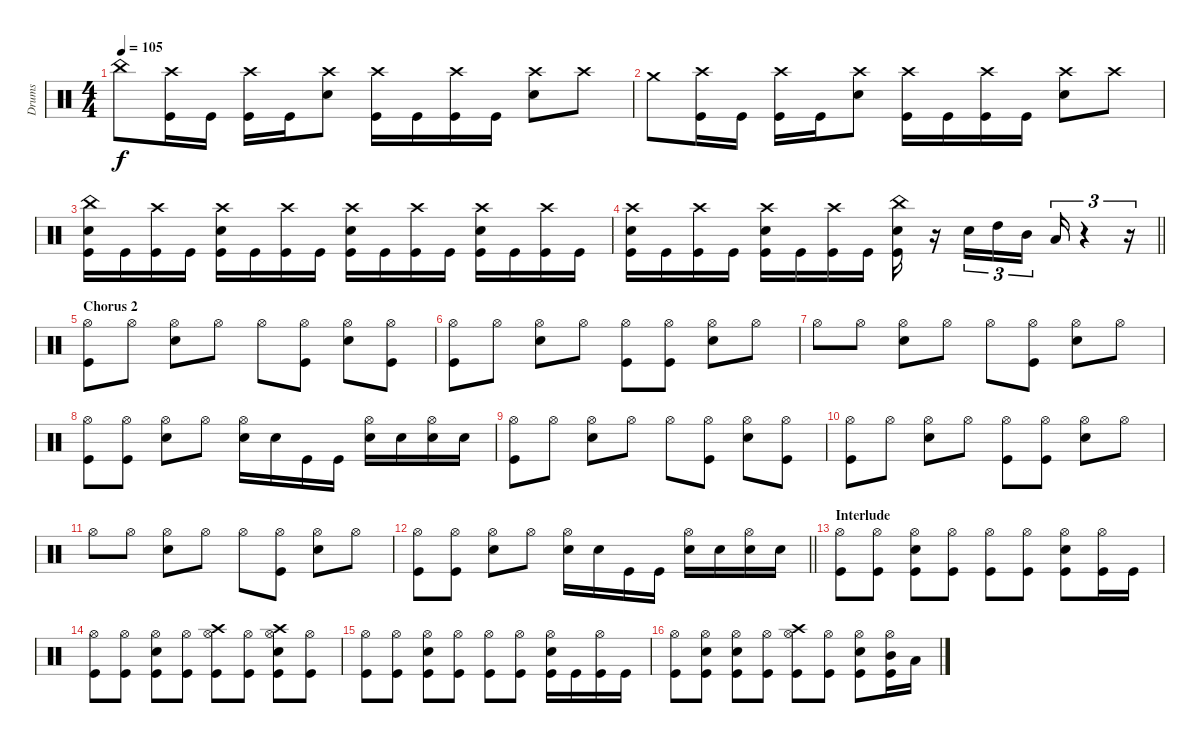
\track ("Drums" "Drums") {instrument percussion}
\staff {score}
\articulation defaults
\ts (4 4)
\tempo 105
\clef neutral
\ks c "China (hit)".8{dy f}
("Crash high (hit)" "Kick (hit)").16 "Kick (hit)".16 ("Crash high (hit)" "Kick (hit)").16 "Kick (hit)".16 ("Crash high (hit)" "Snare (hit) 2").8 ("Crash high (hit)" "Kick (hit)").16 "Kick (hit)".16 ("Crash high (hit)" "Kick (hit)").16 "Kick (hit)".16 ("Crash high (hit)" "Snare (hit) 2").8 "Crash high (hit)".8 |
"Crash medium (hit)".8 ("Crash high (hit)" "Kick (hit)").16 "Kick (hit)".16 ("Crash high (hit)" "Kick (hit)").16 "Kick (hit)".16 ("Crash high (hit)" "Snare (hit) 2").8 ("Crash high (hit)" "Kick (hit)").16 "Kick (hit)".16 ("Crash high (hit)" "Kick (hit)").16 "Kick (hit)".16 ("Crash high (hit)" "Snare (hit) 2").8 "Crash high (hit)".8 |
("China (hit)" "Snare (hit) 2" "Kick (hit)").16 "Kick (hit)".16 ("Crash high (hit)" "Kick (hit)").16 "Kick (hit)".16 ("Crash high (hit)" "Kick (hit)" "Snare (hit) 2").16 "Kick (hit)".16 ("Crash high (hit)" "Kick (hit)").16 "Kick (hit)".16 ("Crash high (hit)" "Kick (hit)" "Snare (hit) 2").16 "Kick (hit)".16 ("Crash high (hit)" "Kick (hit)").16 "Kick (hit)".16 ("Crash high (hit)" "Kick (hit)" "Snare (hit) 2").16 "Kick (hit)".16 ("Crash high (hit)" "Kick (hit)").16 "Kick (hit)".16 |
\barLineRight lightlight
("Crash high (hit)" "Snare (hit) 2" "Kick (hit)").16 "Kick (hit)".16 ("Crash high (hit)" "Kick (hit)").16 "Kick (hit)".16 ("Crash high (hit)" "Kick (hit)" "Snare (hit) 2").16 "Kick (hit)".16 ("Crash high (hit)" "Kick (hit)").16 "Kick (hit)".16 ("China (hit)" "Kick (hit)" "Snare (hit) 2").16 r.16 "Snare (hit) 2".16{tu (3 2)} "High Tom (hit)".16{tu (3 2)} "Mid Tom (hit)".16{tu (3 2)} "Low Tom (hit)".16{tu (3 2)} r.4{tu (3 2)} r.16{tu (3 2)} |
\section ("" "Chorus 2")
("Kick (hit)" "Hi-Hat (open)").8 "Hi-Hat (open)".8 ("Snare (hit) 2" "Hi-Hat (open)").8 "Hi-Hat (open)".8 "Hi-Hat (open)".8 ("Kick (hit)" "Hi-Hat (open)").8 ("Snare (hit) 2" "Hi-Hat (open)").8 ("Kick (hit)" "Hi-Hat (open)").8 |
("Kick (hit)" "Hi-Hat (open)").8 "Hi-Hat (open)".8 ("Snare (hit) 2" "Hi-Hat (open)").8 "Hi-Hat (open)".8 ("Kick (hit)" "Hi-Hat (open)").8 ("Kick (hit)" "Hi-Hat (open)").8 ("Snare (hit) 2" "Hi-Hat (open)").8 "Hi-Hat (open)".8 |
"Hi-Hat (open)".8 "Hi-Hat (open)".8 ("Snare (hit) 2" "Hi-Hat (open)").8 "Hi-Hat (open)".8 "Hi-Hat (open)".8 ("Kick (hit)" "Hi-Hat (open)").8 ("Snare (hit) 2" "Hi-Hat (open)").8 "Hi-Hat (open)".8 |
("Kick (hit)" "Hi-Hat (open)").8 ("Kick (hit)" "Hi-Hat (open)").8 ("Snare (hit) 2" "Hi-Hat (open)").8 "Hi-Hat (open)".8 ("Snare (hit) 2" "Hi-Hat (open)").16 "Snare (hit) 2".16 "Kick (hit)".16 "Kick (hit)".16 ("Snare (hit) 2" "Hi-Hat (open)").16 "Snare (hit) 2".16 ("Snare (hit) 2" "Hi-Hat (open)").16 "Snare (hit) 2".16 |
("Kick (hit)" "Hi-Hat (open)").8 "Hi-Hat (open)".8 ("Snare (hit) 2" "Hi-Hat (open)").8 "Hi-Hat (open)".8 "Hi-Hat (open)".8 ("Kick (hit)" "Hi-Hat (open)").8 ("Snare (hit) 2" "Hi-Hat (open)").8 ("Kick (hit)" "Hi-Hat (open)").8 |
("Kick (hit)" "Hi-Hat (open)").8 "Hi-Hat (open)".8 ("Snare (hit) 2" "Hi-Hat (open)").8 "Hi-Hat (open)".8 ("Kick (hit)" "Hi-Hat (open)").8 ("Kick (hit)" "Hi-Hat (open)").8 ("Snare (hit) 2" "Hi-Hat (open)").8 "Hi-Hat (open)".8 |
"Hi-Hat (open)".8 "Hi-Hat (open)".8 ("Snare (hit) 2" "Hi-Hat (open)").8 "Hi-Hat (open)".8 "Hi-Hat (open)".8 ("Kick (hit)" "Hi-Hat (open)").8 ("Snare (hit) 2" "Hi-Hat (open)").8 "Hi-Hat (open)".8 |
\barLineRight lightlight
("Kick (hit)" "Hi-Hat (open)").8 ("Kick (hit)" "Hi-Hat (open)").8 ("Snare (hit) 2" "Hi-Hat (open)").8 "Hi-Hat (open)".8 ("Snare (hit) 2" "Hi-Hat (open)").16 "Snare (hit) 2".16 "Kick (hit)".16 "Kick (hit)".16 ("Snare (hit) 2" "Hi-Hat (open)").16 "Snare (hit) 2".16 ("Snare (hit) 2" "Hi-Hat (open)").16 "Snare (hit) 2".16 |
\section ("" "Interlude")
("Hi-Hat (open)" "Kick (hit)").8 ("Hi-Hat (open)" "Kick (hit)").8 ("Snare (hit) 2" "Hi-Hat (open)" "Kick (hit)").8 ("Hi-Hat (open)" "Kick (hit)").8 ("Hi-Hat (open)" "Kick (hit)").8 ("Hi-Hat (open)" "Kick (hit)").8 ("Snare (hit) 2" "Hi-Hat (open)" "Kick (hit)").8 ("Hi-Hat (open)" "Kick (hit)").16 "Kick (hit)".16 |
("Hi-Hat (open)" "Kick (hit)").8 ("Hi-Hat (open)" "Kick (hit)").8 ("Snare (hit) 2" "Hi-Hat (open)" "Kick (hit)").8 ("Hi-Hat (open)" "Kick (hit)").8 ("Crash high (hit)" "Hi-Hat (open)" "Kick (hit)").8 ("Hi-Hat (open)" "Kick (hit)").8 ("Crash high (hit)" "Snare (hit) 2" "Hi-Hat (open)" "Kick (hit)").8 ("Hi-Hat (open)" "Kick (hit)").8 |
("Hi-Hat (open)" "Kick (hit)").8 ("Hi-Hat (open)" "Kick (hit)").8 ("Snare (hit) 2" "Hi-Hat (open)" "Kick (hit)").8 ("Hi-Hat (open)" "Kick (hit)").8 ("Hi-Hat (open)" "Kick (hit)").8 ("Hi-Hat (open)" "Kick (hit)").8 ("Snare (hit) 2" "Hi-Hat (open)" "Kick (hit)").16 "Kick (hit)".16 ("Kick (hit)" "Hi-Hat (open)").16 "Kick (hit)".16 |
("Hi-Hat (open)" "Kick (hit)").8 ("Snare (hit) 2" "Hi-Hat (open)" "Kick (hit)").8 ("Snare (hit) 2" "Hi-Hat (open)" "Kick (hit)").8 ("Hi-Hat (open)" "Kick (hit)").8 ("Crash high (hit)" "Hi-Hat (open)" "Kick (hit)").8 ("Hi-Hat (open)" "Kick (hit)").8 ("Snare (hit) 2" "Hi-Hat (open)" "Kick (hit)").8 ("Mid Tom (hit)" "Hi-Hat (open)" "Kick (hit)").16 "Low Tom (hit)".16
